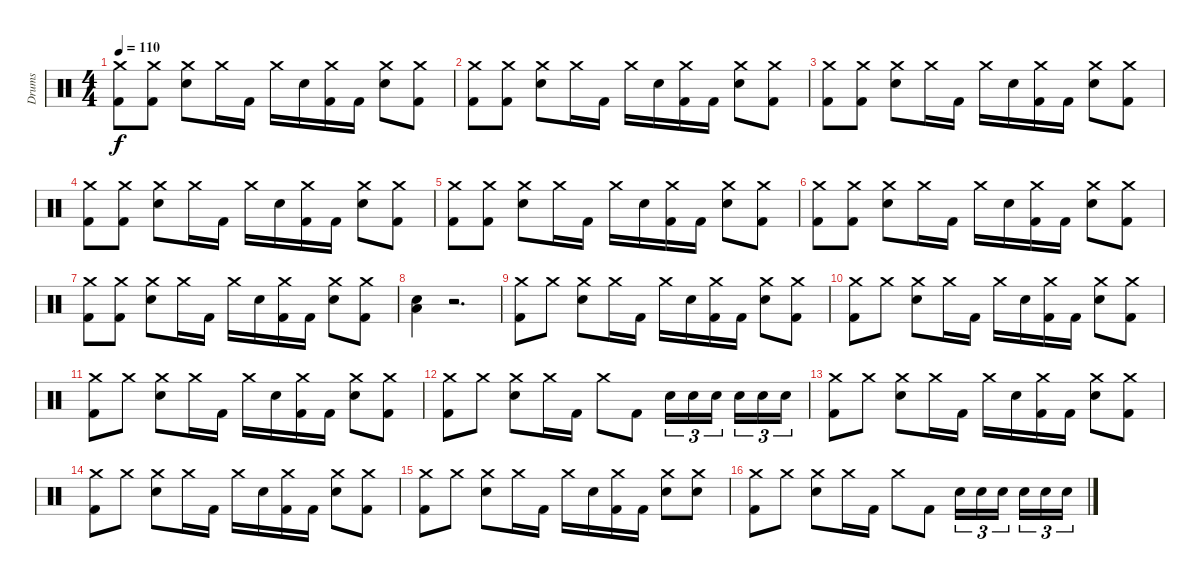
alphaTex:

\track ("Drums" "Drums") {instrument percussion}
\staff {score}
\articulation defaults
\ts (4 4)
\tempo 110
\clef neutral
\ks c
("Crash medium (hit)" "Kick (hit) 2").8{dy f} ("Crash medium (hit)" "Kick (hit) 2").8 ("Crash medium (hit)" "Electric Snare (hit)").8 "Crash medium (hit)".16 "Kick (hit) 2".16 "Crash medium (hit)".16 "Electric Snare (hit)".16 ("Crash medium (hit)" "Kick (hit) 2").16 "Kick (hit) 2".16 ("Crash medium (hit)" "Electric Snare (hit)").8 ("Crash medium (hit)" "Kick (hit) 2").8 |
("Crash medium (hit)" "Kick (hit) 2").8 ("Crash medium (hit)" "Kick (hit) 2").8 ("Crash medium (hit)" "Electric Snare (hit)").8 "Crash medium (hit)".16 "Kick (hit) 2".16 "Crash medium (hit)".16 "Electric Snare (hit)".16 ("Crash medium (hit)" "Kick (hit) 2").16 "Kick (hit) 2".16 ("Crash medium (hit)" "Electric Snare (hit)").8 ("Crash medium (hit)" "Kick (hit) 2").8 |
("Crash medium (hit)" "Kick (hit) 2").8 ("Crash medium (hit)" "Kick (hit) 2").8 ("Crash medium (hit)" "Electric Snare (hit)").8 "Crash medium (hit)".16 "Kick (hit) 2".16 "Crash medium (hit)".16 "Electric Snare (hit)".16 ("Crash medium (hit)" "Kick (hit) 2").16 "Kick (hit) 2".16 ("Crash medium (hit)" "Electric Snare (hit)").8 ("Crash medium (hit)" "Kick (hit) 2").8 |
("Crash medium (hit)" "Kick (hit) 2").8 ("Crash medium (hit)" "Kick (hit) 2").8 ("Crash medium (hit)" "Electric Snare (hit)").8 "Crash medium (hit)".16 "Kick (hit) 2".16 "Crash medium (hit)".16 "Electric Snare (hit)".16 ("Crash medium (hit)" "Kick (hit) 2").16 "Kick (hit) 2".16 ("Crash medium (hit)" "Electric Snare (hit)").8 ("Crash medium (hit)" "Kick (hit) 2").8 |
("Crash medium (hit)" "Kick (hit) 2").8 ("Crash medium (hit)" "Kick (hit) 2").8 ("Crash medium (hit)" "Electric Snare (hit)").8 "Crash medium (hit)".16 "Kick (hit) 2".16 "Crash medium (hit)".16 "Electric Snare (hit)".16 ("Crash medium (hit)" "Kick (hit) 2").16 "Kick (hit) 2".16 ("Crash medium (hit)" "Electric Snare (hit)").8 ("Crash medium (hit)" "Kick (hit) 2").8 |
("Crash medium (hit)" "Kick (hit) 2").8 ("Crash medium (hit)" "Kick (hit) 2").8 ("Crash medium (hit)" "Electric Snare (hit)").8 "Crash medium (hit)".16 "Kick (hit) 2".16 "Crash medium (hit)".16 "Electric Snare (hit)".16 ("Crash medium (hit)" "Kick (hit) 2").16 "Kick (hit) 2".16 ("Crash medium (hit)" "Electric Snare (hit)").8 ("Crash medium (hit)" "Kick (hit) 2").8 |
("Crash medium (hit)" "Kick (hit) 2").8 ("Crash medium (hit)" "Kick (hit) 2").8 ("Crash medium (hit)" "Electric Snare (hit)").8 "Crash medium (hit)".16 "Kick (hit) 2".16 "Crash medium (hit)".16 "Electric Snare (hit)".16 ("Crash medium (hit)" "Kick (hit) 2").16 "Kick (hit) 2".16 ("Crash medium (hit)" "Electric Snare (hit)").8 ("Crash medium (hit)" "Kick (hit) 2").8 |
("Low Floor Tom (hit)" "Electric Snare (hit)").4 r.2{d} |
("Crash medium (hit)" "Kick (hit) 2").8 "Crash medium (hit)".8 ("Crash medium (hit)" "Electric Snare (hit)").8 "Crash medium (hit)".16 "Kick (hit) 2".16 "Crash medium (hit)".16 "Electric Snare (hit)".16 ("Crash medium (hit)" "Kick (hit) 2").16 "Kick (hit) 2".16 ("Crash medium (hit)" "Electric Snare (hit)").8 ("Crash medium (hit)" "Kick (hit) 2").8 |
("Crash medium (hit)" "Kick (hit) 2").8 "Crash medium (hit)".8 ("Crash medium (hit)" "Electric Snare (hit)").8 "Crash medium (hit)".16 "Kick (hit) 2".16 "Crash medium (hit)".16 "Electric Snare (hit)".16 ("Crash medium (hit)" "Kick (hit) 2").16 "Kick (hit) 2".16 ("Crash medium (hit)" "Electric Snare (hit)").8 ("Crash medium (hit)" "Kick (hit) 2").8 |
("Crash medium (hit)" "Kick (hit) 2").8 "Crash medium (hit)".8 ("Crash medium (hit)" "Electric Snare (hit)").8 "Crash medium (hit)".16 "Kick (hit) 2".16 "Crash medium (hit)".16 "Electric Snare (hit)".16 ("Crash medium (hit)" "Kick (hit) 2").16 "Kick (hit) 2".16 ("Crash medium (hit)" "Electric Snare (hit)").8 ("Crash medium (hit)" "Kick (hit) 2").8 |
("Crash medium (hit)" "Kick (hit) 2").8 "Crash medium (hit)".8 ("Crash medium (hit)" "Electric Snare (hit)").8 "Crash medium (hit)".16 "Kick (hit) 2".16 "Crash medium (hit)".8 "Kick (hit) 2".8 "Electric Snare (hit)".16{tu (3 2)} "Electric Snare (hit)".16{tu (3 2)} "Electric Snare (hit)".16{tu (3 2)} "Electric Snare (hit)".16{tu (3 2)} "Electric Snare (hit)".16{tu (3 2)} "Electric Snare (hit)".16{tu (3 2)} |
("Crash medium (hit)" "Kick (hit) 2").8 "Crash medium (hit)".8 ("Crash medium (hit)" "Electric Snare (hit)").8 "Crash medium (hit)".16 "Kick (hit) 2".16 "Crash medium (hit)".16 "Electric Snare (hit)".16 ("Crash medium (hit)" "Kick (hit) 2").16 "Kick (hit) 2".16 ("Crash medium (hit)" "Electric Snare (hit)").8 ("Crash medium (hit)" "Kick (hit) 2").8 |
("Crash medium (hit)" "Kick (hit) 2").8 "Crash medium (hit)".8 ("Crash medium (hit)" "Electric Snare (hit)").8 "Crash medium (hit)".16 "Kick (hit) 2".16 "Crash medium (hit)".16 "Electric Snare (hit)".16 ("Crash medium (hit)" "Kick (hit) 2").16 "Kick (hit) 2".16 ("Crash medium (hit)" "Electric Snare (hit)").8 ("Crash medium (hit)" "Kick (hit) 2").8 |
("Crash medium (hit)" "Kick (hit) 2").8 "Crash medium (hit)".8 ("Crash medium (hit)" "Electric Snare (hit)").8 "Crash medium (hit)".16 "Kick (hit) 2".16 "Crash medium (hit)".16 "Electric Snare (hit)".16 ("Crash medium (hit)" "Kick (hit) 2").16 "Kick (hit) 2".16 ("Crash medium (hit)" "Electric Snare (hit)").8 ("Crash medium (hit)" "Electric Snare (hit)").8 |
("Crash medium (hit)" "Kick (hit) 2").8 "Crash medium (hit)".8 ("Crash medium (hit)" "Electric Snare (hit)").8 "Crash medium (hit)".16 "Kick (hit) 2".16 "Crash medium (hit)".8 "Kick (hit) 2".8 "Electric Snare (hit)".16{tu (3 2)} "Electric Snare (hit)".16{tu (3 2)} "Electric Snare (hit)".16{tu (3 2)} "Electric Snare (hit)".16{tu (3 2)} "Electric Snare (hit)".16{tu (3 2)} "Electric Snare (hit)".16{tu (3 2)}
